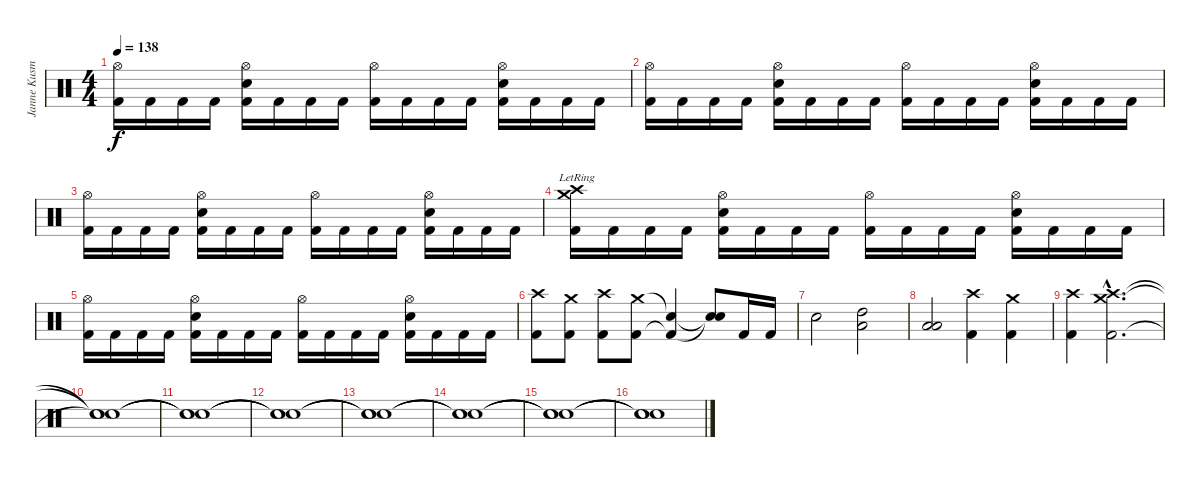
\track ("Janne Kusmin" "Janne Kusm") {instrument percussion}
\staff {score}
\articulation defaults
\ts (4 4)
\tempo 138
\clef neutral
\ks c
("Hi-Hat (open)" "Kick (hit) 2").16{dy f} "Kick (hit) 2".16 "Kick (hit) 2".16 "Kick (hit) 2".16 ("Hi-Hat (open)" "Electric Snare (hit)" "Kick (hit) 2").16 "Kick (hit) 2".16 "Kick (hit) 2".16 "Kick (hit) 2".16 ("Hi-Hat (open)" "Kick (hit) 2").16 "Kick (hit) 2".16 "Kick (hit) 2".16 "Kick (hit) 2".16 ("Hi-Hat (open)" "Electric Snare (hit)" "Kick (hit) 2").16 "Kick (hit) 2".16 "Kick (hit) 2".16 "Kick (hit) 2".16 |
("Hi-Hat (open)" "Kick (hit) 2").16 "Kick (hit) 2".16 "Kick (hit) 2".16 "Kick (hit) 2".16 ("Hi-Hat (open)" "Electric Snare (hit)" "Kick (hit) 2").16 "Kick (hit) 2".16 "Kick (hit) 2".16 "Kick (hit) 2".16 ("Hi-Hat (open)" "Kick (hit) 2").16 "Kick (hit) 2".16 "Kick (hit) 2".16 "Kick (hit) 2".16 ("Hi-Hat (open)" "Electric Snare (hit)" "Kick (hit) 2").16 "Kick (hit) 2".16 "Kick (hit) 2".16 "Kick (hit) 2".16 |
("Hi-Hat (open)" "Kick (hit) 2").16 "Kick (hit) 2".16 "Kick (hit) 2".16 "Kick (hit) 2".16 ("Hi-Hat (open)" "Electric Snare (hit)" "Kick (hit) 2").16 "Kick (hit) 2".16 "Kick (hit) 2".16 "Kick (hit) 2".16 ("Hi-Hat (open)" "Kick (hit) 2").16 "Kick (hit) 2".16 "Kick (hit) 2".16 "Kick (hit) 2".16 ("Hi-Hat (open)" "Electric Snare (hit)" "Kick (hit) 2").16 "Kick (hit) 2".16 "Kick (hit) 2".16 "Kick (hit) 2".16 |
("Crash high (hit)"{lr} "Crash medium (hit)"{lr} "Kick (hit) 2").16 "Kick (hit) 2".16 "Kick (hit) 2".16 "Kick (hit) 2".16 ("Hi-Hat (open)" "Electric Snare (hit)" "Kick (hit) 2").16 "Kick (hit) 2".16 "Kick (hit) 2".16 "Kick (hit) 2".16 ("Hi-Hat (open)" "Kick (hit) 2").16 "Kick (hit) 2".16 "Kick (hit) 2".16 "Kick (hit) 2".16 ("Hi-Hat (open)" "Electric Snare (hit)" "Kick (hit) 2").16 "Kick (hit) 2".16 "Kick (hit) 2".16 "Kick (hit) 2".16 |
("Hi-Hat (open)" "Kick (hit) 2").16 "Kick (hit) 2".16 "Kick (hit) 2".16 "Kick (hit) 2".16 ("Hi-Hat (open)" "Electric Snare (hit)" "Kick (hit) 2").16 "Kick (hit) 2".16 "Kick (hit) 2".16 "Kick (hit) 2".16 ("Hi-Hat (open)" "Kick (hit) 2").16 "Kick (hit) 2".16 "Kick (hit) 2".16 "Kick (hit) 2".16 ("Hi-Hat (open)" "Electric Snare (hit)" "Kick (hit) 2").16 "Kick (hit) 2".16 "Kick (hit) 2".16 "Kick (hit) 2".16 |
("Crash high (hit)" "Kick (hit) 2").8 ("Crash medium (hit)" "Kick (hit) 2").8 ("Crash high (hit)" "Kick (hit) 2").8 ("Crash medium (hit)" "Kick (hit) 2").8 ("Snare (hit)"{t} "Kick (hit) 2"{t}).4 ("Snare (hit)"{t} "Snare (hit)"{t}).8 "Kick (hit) 2".16 "Kick (hit) 2".16 |
"Electric Snare (hit)".2 ("High Tom (hit)" "Low Floor Tom (hit)").2 |
("Low Tom (hit)" "Low Floor Tom (hit)").2 ("Crash high (hit)" "Kick (hit) 2").4 ("Crash medium (hit)" "Kick (hit) 2").4 |
("Crash high (hit)" "Kick (hit) 2").4 ("Crash high (hit)"{hac} "Crash medium (hit)"{hac} "Kick (hit) 2"{hac}).2{d} |
("Snare (hit)"{t} "Snare (hit)"{t} "Snare (hit)"{t}).1 |
("Snare (hit)"{t} "Snare (hit)"{t} "Snare (hit)"{t}).1 |
("Snare (hit)"{t} "Snare (hit)"{t} "Snare (hit)"{t}).1 |
("Snare (hit)"{t} "Snare (hit)"{t} "Snare (hit)"{t}).1 |
("Snare (hit)"{t} "Snare (hit)"{t} "Snare (hit)"{t}).1 |
("Snare (hit)"{t} "Snare (hit)"{t} "Snare (hit)"{t}).1 |
("Snare (hit)"{t} "Snare (hit)"{t} "Snare (hit)"{t}).1
